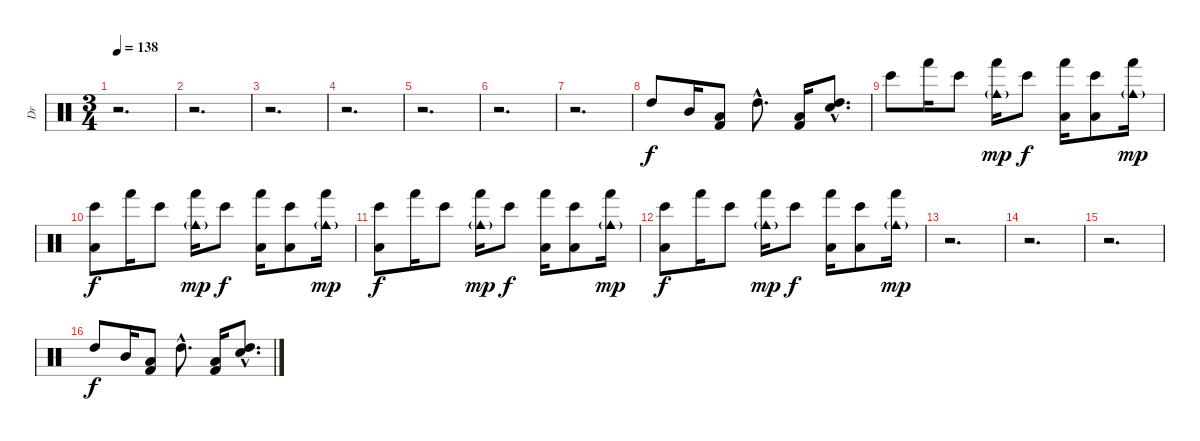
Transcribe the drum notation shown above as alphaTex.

\track ("Dr" "Dr") {instrument percussion}
\staff {score}
\articulation defaults
\ts (3 4)
\tempo 138
\clef neutral
\ks c
r.2{d dy f} |
r.2{d} |
r.2{d} |
r.2{d} |
r.2{d} |
r.2{d} |
r.2{d} |
"High Tom (hit)".8 "Mid Tom (hit)".16 ("Low Tom (hit)" "Kick (hit) 2").8 "High Tom (hit)"{hac}.8{d} ("Low Tom (hit)" "Kick (hit) 2").16 ("Electric Snare (hit)"{hac} "High Tom (hit)"{hac}).8{d} |
"Bongo High (hit)".8 "Hand (hit)".16 "Bongo High (hit)".8 ("Cowbell medium (hit)"{g} "Hand (hit)").16{dy mp} "Bongo High (hit)".8{dy f} ("Hand (hit)" "Low Floor Tom (hit)").16 ("Bongo High (hit)" "Low Floor Tom (hit)").8 ("Cowbell medium (hit)"{g} "Hand (hit)").16{dy mp} |
("Bongo High (hit)" "Low Floor Tom (hit)").8{dy f} "Hand (hit)".16 "Bongo High (hit)".8 ("Cowbell medium (hit)"{g} "Hand (hit)").16{dy mp} "Bongo High (hit)".8{dy f} ("Hand (hit)" "Low Floor Tom (hit)").16 ("Bongo High (hit)" "Low Floor Tom (hit)").8 ("Cowbell medium (hit)"{g} "Hand (hit)").16{dy mp} |
("Bongo High (hit)" "Low Floor Tom (hit)").8{dy f} "Hand (hit)".16 "Bongo High (hit)".8 ("Cowbell medium (hit)"{g} "Hand (hit)").16{dy mp} "Bongo High (hit)".8{dy f} ("Hand (hit)" "Low Floor Tom (hit)").16 ("Bongo High (hit)" "Low Floor Tom (hit)").8 ("Cowbell medium (hit)"{g} "Hand (hit)").16{dy mp} |
("Bongo High (hit)" "Low Floor Tom (hit)").8{dy f} "Hand (hit)".16 "Bongo High (hit)".8 ("Cowbell medium (hit)"{g} "Hand (hit)").16{dy mp} "Bongo High (hit)".8{dy f} ("Hand (hit)" "Low Floor Tom (hit)").16 ("Bongo High (hit)" "Low Floor Tom (hit)").8 ("Cowbell medium (hit)"{g} "Hand (hit)").16{dy mp} |
r.2{d} |
r.2{d} |
r.2{d} |
"High Tom (hit)".8{dy f} "Mid Tom (hit)".16 ("Low Tom (hit)" "Kick (hit) 2").8 "High Tom (hit)"{hac}.8{d} ("Low Tom (hit)" "Kick (hit) 2").16 ("Electric Snare (hit)"{hac} "High Tom (hit)"{hac}).8{d}
